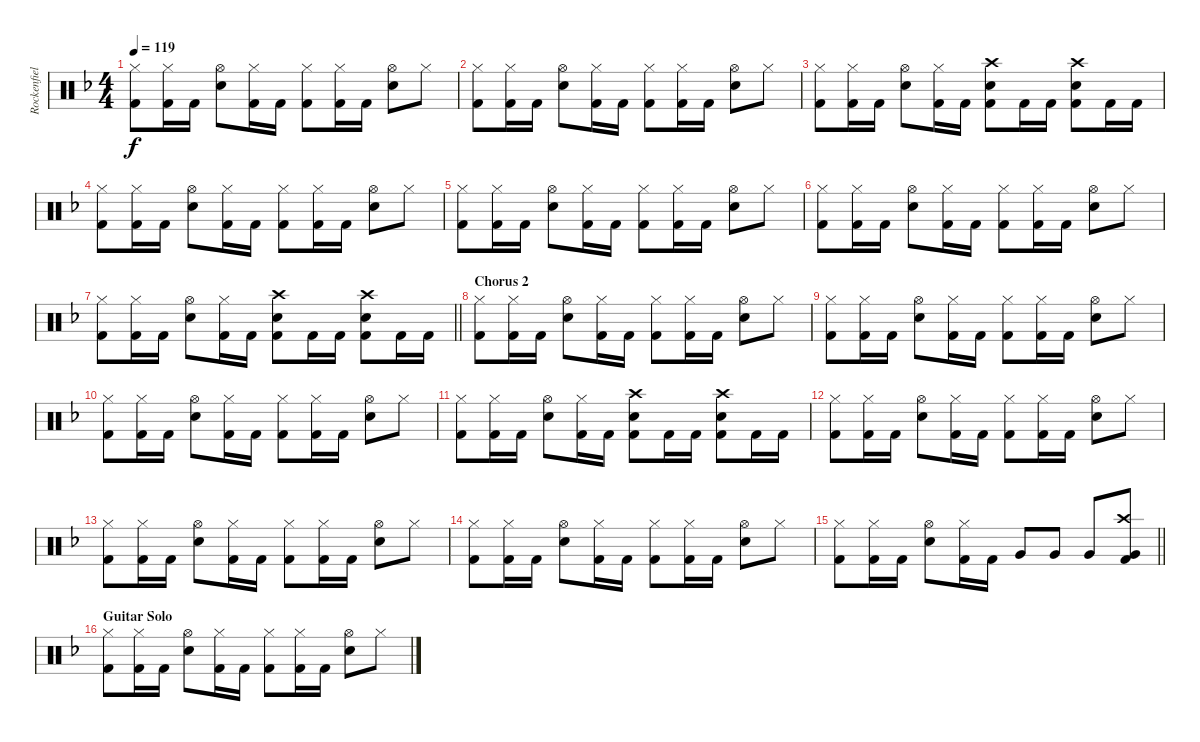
\track ("Rockenfield" "Rockenfiel") {instrument percussion}
\staff {score}
\articulation defaults
\ts (4 4)
\tempo 119
\clef neutral
\ks dminor
("Hi-Hat (closed)" "Kick (hit) 2").8{dy f} ("Hi-Hat (closed)" "Kick (hit) 2").16 "Kick (hit) 2".16 ("Hi-Hat (open)" "Snare (hit) 2").8 ("Hi-Hat (closed)" "Kick (hit) 2").16 "Kick (hit) 2".16 ("Hi-Hat (closed)" "Kick (hit) 2").8 ("Hi-Hat (closed)" "Kick (hit) 2").16 "Kick (hit) 2".16 ("Hi-Hat (open)" "Snare (hit) 2").8 "Hi-Hat (closed)".8 |
("Hi-Hat (closed)" "Kick (hit) 2").8 ("Hi-Hat (closed)" "Kick (hit) 2").16 "Kick (hit) 2".16 ("Hi-Hat (open)" "Snare (hit) 2").8 ("Hi-Hat (closed)" "Kick (hit) 2").16 "Kick (hit) 2".16 ("Hi-Hat (closed)" "Kick (hit) 2").8 ("Hi-Hat (closed)" "Kick (hit) 2").16 "Kick (hit) 2".16 ("Hi-Hat (open)" "Snare (hit) 2").8 "Hi-Hat (closed)".8 |
("Hi-Hat (closed)" "Kick (hit) 2").8 ("Hi-Hat (closed)" "Kick (hit) 2").16 "Kick (hit) 2".16 ("Hi-Hat (open)" "Snare (hit) 2").8 ("Hi-Hat (closed)" "Kick (hit) 2").16 "Kick (hit) 2".16 ("Crash high (hit)" "Kick (hit) 2" "Snare (hit) 2").8 "Kick (hit) 2".16 "Kick (hit) 2".16 ("Crash high (hit)" "Kick (hit) 2" "Snare (hit) 2").8 "Kick (hit) 2".16 "Kick (hit) 2".16 |
("Hi-Hat (closed)" "Kick (hit) 2").8 ("Hi-Hat (closed)" "Kick (hit) 2").16 "Kick (hit) 2".16 ("Hi-Hat (open)" "Snare (hit) 2").8 ("Hi-Hat (closed)" "Kick (hit) 2").16 "Kick (hit) 2".16 ("Hi-Hat (closed)" "Kick (hit) 2").8 ("Hi-Hat (closed)" "Kick (hit) 2").16 "Kick (hit) 2".16 ("Hi-Hat (open)" "Snare (hit) 2").8 "Hi-Hat (closed)".8 |
("Hi-Hat (closed)" "Kick (hit) 2").8 ("Hi-Hat (closed)" "Kick (hit) 2").16 "Kick (hit) 2".16 ("Hi-Hat (open)" "Snare (hit) 2").8 ("Hi-Hat (closed)" "Kick (hit) 2").16 "Kick (hit) 2".16 ("Hi-Hat (closed)" "Kick (hit) 2").8 ("Hi-Hat (closed)" "Kick (hit) 2").16 "Kick (hit) 2".16 ("Hi-Hat (open)" "Snare (hit) 2").8 "Hi-Hat (closed)".8 |
("Hi-Hat (closed)" "Kick (hit) 2").8 ("Hi-Hat (closed)" "Kick (hit) 2").16 "Kick (hit) 2".16 ("Hi-Hat (open)" "Snare (hit) 2").8 ("Hi-Hat (closed)" "Kick (hit) 2").16 "Kick (hit) 2".16 ("Hi-Hat (closed)" "Kick (hit) 2").8 ("Hi-Hat (closed)" "Kick (hit) 2").16 "Kick (hit) 2".16 ("Hi-Hat (open)" "Snare (hit) 2").8 "Hi-Hat (closed)".8 |
\barLineRight lightlight
("Hi-Hat (closed)" "Kick (hit) 2").8 ("Hi-Hat (closed)" "Kick (hit) 2").16 "Kick (hit) 2".16 ("Hi-Hat (open)" "Snare (hit) 2").8 ("Hi-Hat (closed)" "Kick (hit) 2").16 "Kick (hit) 2".16 ("Crash high (hit)" "Kick (hit) 2" "Snare (hit) 2").8 "Kick (hit) 2".16 "Kick (hit) 2".16 ("Crash high (hit)" "Kick (hit) 2" "Snare (hit) 2").8 "Kick (hit) 2".16 "Kick (hit) 2".16 |
\section ("" "Chorus 2")
("Hi-Hat (closed)" "Kick (hit) 2").8 ("Hi-Hat (closed)" "Kick (hit) 2").16 "Kick (hit) 2".16 ("Hi-Hat (open)" "Snare (hit) 2").8 ("Hi-Hat (closed)" "Kick (hit) 2").16 "Kick (hit) 2".16 ("Hi-Hat (closed)" "Kick (hit) 2").8 ("Hi-Hat (closed)" "Kick (hit) 2").16 "Kick (hit) 2".16 ("Hi-Hat (open)" "Snare (hit) 2").8 "Hi-Hat (closed)".8 |
("Hi-Hat (closed)" "Kick (hit) 2").8 ("Hi-Hat (closed)" "Kick (hit) 2").16 "Kick (hit) 2".16 ("Hi-Hat (open)" "Snare (hit) 2").8 ("Hi-Hat (closed)" "Kick (hit) 2").16 "Kick (hit) 2".16 ("Hi-Hat (closed)" "Kick (hit) 2").8 ("Hi-Hat (closed)" "Kick (hit) 2").16 "Kick (hit) 2".16 ("Hi-Hat (open)" "Snare (hit) 2").8 "Hi-Hat (closed)".8 |
("Hi-Hat (closed)" "Kick (hit) 2").8 ("Hi-Hat (closed)" "Kick (hit) 2").16 "Kick (hit) 2".16 ("Hi-Hat (open)" "Snare (hit) 2").8 ("Hi-Hat (closed)" "Kick (hit) 2").16 "Kick (hit) 2".16 ("Hi-Hat (closed)" "Kick (hit) 2").8 ("Hi-Hat (closed)" "Kick (hit) 2").16 "Kick (hit) 2".16 ("Hi-Hat (open)" "Snare (hit) 2").8 "Hi-Hat (closed)".8 |
("Hi-Hat (closed)" "Kick (hit) 2").8 ("Hi-Hat (closed)" "Kick (hit) 2").16 "Kick (hit) 2".16 ("Hi-Hat (open)" "Snare (hit) 2").8 ("Hi-Hat (closed)" "Kick (hit) 2").16 "Kick (hit) 2".16 ("Crash high (hit)" "Kick (hit) 2" "Snare (hit) 2").8 "Kick (hit) 2".16 "Kick (hit) 2".16 ("Crash high (hit)" "Kick (hit) 2" "Snare (hit) 2").8 "Kick (hit) 2".16 "Kick (hit) 2".16 |
("Hi-Hat (closed)" "Kick (hit) 2").8 ("Hi-Hat (closed)" "Kick (hit) 2").16 "Kick (hit) 2".16 ("Hi-Hat (open)" "Snare (hit) 2").8 ("Hi-Hat (closed)" "Kick (hit) 2").16 "Kick (hit) 2".16 ("Hi-Hat (closed)" "Kick (hit) 2").8 ("Hi-Hat (closed)" "Kick (hit) 2").16 "Kick (hit) 2".16 ("Hi-Hat (open)" "Snare (hit) 2").8 "Hi-Hat (closed)".8 |
("Hi-Hat (closed)" "Kick (hit) 2").8 ("Hi-Hat (closed)" "Kick (hit) 2").16 "Kick (hit) 2".16 ("Hi-Hat (open)" "Snare (hit) 2").8 ("Hi-Hat (closed)" "Kick (hit) 2").16 "Kick (hit) 2".16 ("Hi-Hat (closed)" "Kick (hit) 2").8 ("Hi-Hat (closed)" "Kick (hit) 2").16 "Kick (hit) 2".16 ("Hi-Hat (open)" "Snare (hit) 2").8 "Hi-Hat (closed)".8 |
("Hi-Hat (closed)" "Kick (hit) 2").8 ("Hi-Hat (closed)" "Kick (hit) 2").16 "Kick (hit) 2".16 ("Hi-Hat (open)" "Snare (hit) 2").8 ("Hi-Hat (closed)" "Kick (hit) 2").16 "Kick (hit) 2".16 ("Hi-Hat (closed)" "Kick (hit) 2").8 ("Hi-Hat (closed)" "Kick (hit) 2").16 "Kick (hit) 2".16 ("Hi-Hat (open)" "Snare (hit) 2").8 "Hi-Hat (closed)".8 |
\barLineRight lightlight
("Hi-Hat (closed)" "Kick (hit) 2").8 ("Hi-Hat (closed)" "Kick (hit) 2").16 "Kick (hit) 2".16 ("Hi-Hat (open)" "Snare (hit) 2").8 ("Hi-Hat (closed)" "Kick (hit) 2").16 "Kick (hit) 2".16 "Very Low Tom (hit)".8 "Very Low Tom (hit)".8 "Very Low Tom (hit)".8 ("Crash high (hit)" "Kick (hit) 2" "Very Low Tom (hit)").8 |
\section ("" "Guitar Solo")
("Hi-Hat (closed)" "Kick (hit) 2").8 ("Hi-Hat (closed)" "Kick (hit) 2").16 "Kick (hit) 2".16 ("Hi-Hat (open)" "Snare (hit) 2").8 ("Hi-Hat (closed)" "Kick (hit) 2").16 "Kick (hit) 2".16 ("Hi-Hat (closed)" "Kick (hit) 2").8 ("Hi-Hat (closed)" "Kick (hit) 2").16 "Kick (hit) 2".16 ("Hi-Hat (open)" "Snare (hit) 2").8 "Hi-Hat (closed)".8
